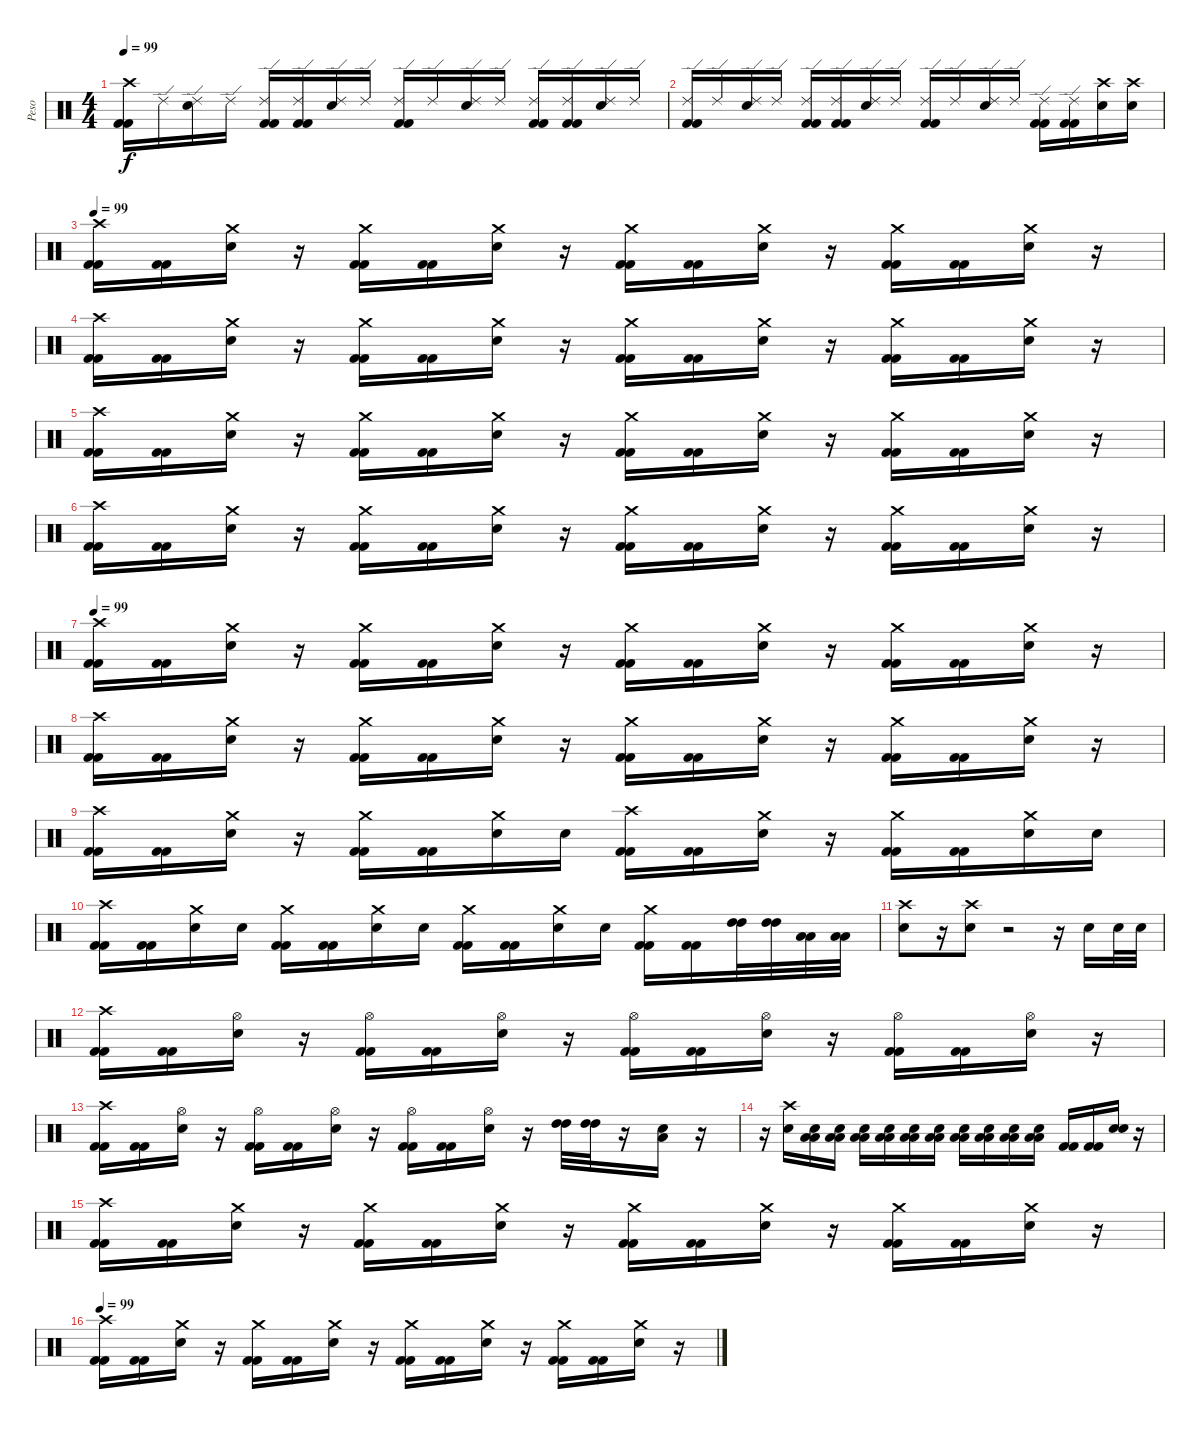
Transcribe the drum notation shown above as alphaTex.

\track ("Peso" "Peso") {instrument percussion}
\staff {score}
\articulation defaults
\ts (4 4)
\tempo 99
\clef neutral
\ks c
("Crash high (hit)" "Kick (hit) 2" "Kick (hit) 2").16{dy f} "Ride (edge) 2".16 ("Ride (edge) 2" "Electric Snare (hit)").16 "Ride (edge) 2".16 ("Ride (edge) 2" "Kick (hit) 2" "Kick (hit) 2").16 ("Ride (edge) 2" "Kick (hit) 2" "Kick (hit) 2").16 ("Ride (edge) 2" "Electric Snare (hit)").16 "Ride (edge) 2".16 ("Ride (edge) 2" "Kick (hit) 2" "Kick (hit) 2").16 "Ride (edge) 2".16 ("Ride (edge) 2" "Electric Snare (hit)").16 "Ride (edge) 2".16 ("Ride (edge) 2" "Kick (hit) 2" "Kick (hit) 2").16 ("Ride (edge) 2" "Kick (hit) 2" "Kick (hit) 2").16 ("Ride (edge) 2" "Electric Snare (hit)").16 "Ride (edge) 2".16 |
("Ride (edge) 2" "Kick (hit) 2" "Kick (hit) 2").16 "Ride (edge) 2".16 ("Ride (edge) 2" "Electric Snare (hit)").16 "Ride (edge) 2".16 ("Ride (edge) 2" "Kick (hit) 2" "Kick (hit) 2").16 ("Ride (edge) 2" "Kick (hit) 2" "Kick (hit) 2").16 ("Ride (edge) 2" "Electric Snare (hit)").16 "Ride (edge) 2".16 ("Ride (edge) 2" "Kick (hit) 2" "Kick (hit) 2").16 "Ride (edge) 2".16 ("Ride (edge) 2" "Electric Snare (hit)").16 "Ride (edge) 2".16 ("Ride (edge) 2" "Kick (hit) 2" "Kick (hit) 2").16 ("Ride (edge) 2" "Kick (hit) 2" "Kick (hit) 2").16 ("Crash high (hit)" "Electric Snare (hit)").16 ("Crash high (hit)" "Electric Snare (hit)").16 |
\tempo 99
("Crash high (hit)" "Kick (hit) 2" "Kick (hit) 2").16 ("Kick (hit) 2" "Kick (hit) 2").16 ("Crash medium (hit)" "Electric Snare (hit)").16 r.16 ("Crash medium (hit)" "Kick (hit) 2" "Kick (hit) 2").16 ("Kick (hit) 2" "Kick (hit) 2").16 ("Crash medium (hit)" "Electric Snare (hit)").16 r.16 ("Crash medium (hit)" "Kick (hit) 2" "Kick (hit) 2").16 ("Kick (hit) 2" "Kick (hit) 2").16 ("Crash medium (hit)" "Electric Snare (hit)").16 r.16 ("Crash medium (hit)" "Kick (hit) 2" "Kick (hit) 2").16 ("Kick (hit) 2" "Kick (hit) 2").16 ("Crash medium (hit)" "Electric Snare (hit)").16 r.16 |
("Crash high (hit)" "Kick (hit) 2" "Kick (hit) 2").16 ("Kick (hit) 2" "Kick (hit) 2").16 ("Crash medium (hit)" "Electric Snare (hit)").16 r.16 ("Crash medium (hit)" "Kick (hit) 2" "Kick (hit) 2").16 ("Kick (hit) 2" "Kick (hit) 2").16 ("Crash medium (hit)" "Electric Snare (hit)").16 r.16 ("Crash medium (hit)" "Kick (hit) 2" "Kick (hit) 2").16 ("Kick (hit) 2" "Kick (hit) 2").16 ("Crash medium (hit)" "Electric Snare (hit)").16 r.16 ("Crash medium (hit)" "Kick (hit) 2" "Kick (hit) 2").16 ("Kick (hit) 2" "Kick (hit) 2").16 ("Crash medium (hit)" "Electric Snare (hit)").16 r.16 |
("Crash high (hit)" "Kick (hit) 2" "Kick (hit) 2").16 ("Kick (hit) 2" "Kick (hit) 2").16 ("Crash medium (hit)" "Electric Snare (hit)").16 r.16 ("Crash medium (hit)" "Kick (hit) 2" "Kick (hit) 2").16 ("Kick (hit) 2" "Kick (hit) 2").16 ("Crash medium (hit)" "Electric Snare (hit)").16 r.16 ("Crash medium (hit)" "Kick (hit) 2" "Kick (hit) 2").16 ("Kick (hit) 2" "Kick (hit) 2").16 ("Crash medium (hit)" "Electric Snare (hit)").16 r.16 ("Crash medium (hit)" "Kick (hit) 2" "Kick (hit) 2").16 ("Kick (hit) 2" "Kick (hit) 2").16 ("Crash medium (hit)" "Electric Snare (hit)").16 r.16 |
("Crash high (hit)" "Kick (hit) 2" "Kick (hit) 2").16 ("Kick (hit) 2" "Kick (hit) 2").16 ("Crash medium (hit)" "Electric Snare (hit)").16 r.16 ("Crash medium (hit)" "Kick (hit) 2" "Kick (hit) 2").16 ("Kick (hit) 2" "Kick (hit) 2").16 ("Crash medium (hit)" "Electric Snare (hit)").16 r.16 ("Crash medium (hit)" "Kick (hit) 2" "Kick (hit) 2").16 ("Kick (hit) 2" "Kick (hit) 2").16 ("Crash medium (hit)" "Electric Snare (hit)").16 r.16 ("Crash medium (hit)" "Kick (hit) 2" "Kick (hit) 2").16 ("Kick (hit) 2" "Kick (hit) 2").16 ("Crash medium (hit)" "Electric Snare (hit)").16 r.16 |
\tempo 99
("Crash high (hit)" "Kick (hit) 2" "Kick (hit) 2").16 ("Kick (hit) 2" "Kick (hit) 2").16 ("Crash medium (hit)" "Electric Snare (hit)").16 r.16 ("Crash medium (hit)" "Kick (hit) 2" "Kick (hit) 2").16 ("Kick (hit) 2" "Kick (hit) 2").16 ("Crash medium (hit)" "Electric Snare (hit)").16 r.16 ("Crash medium (hit)" "Kick (hit) 2" "Kick (hit) 2").16 ("Kick (hit) 2" "Kick (hit) 2").16 ("Crash medium (hit)" "Electric Snare (hit)").16 r.16 ("Crash medium (hit)" "Kick (hit) 2" "Kick (hit) 2").16 ("Kick (hit) 2" "Kick (hit) 2").16 ("Crash medium (hit)" "Electric Snare (hit)").16 r.16 |
("Crash high (hit)" "Kick (hit) 2" "Kick (hit) 2").16 ("Kick (hit) 2" "Kick (hit) 2").16 ("Crash medium (hit)" "Electric Snare (hit)").16 r.16 ("Crash medium (hit)" "Kick (hit) 2" "Kick (hit) 2").16 ("Kick (hit) 2" "Kick (hit) 2").16 ("Crash medium (hit)" "Electric Snare (hit)").16 r.16 ("Crash medium (hit)" "Kick (hit) 2" "Kick (hit) 2").16 ("Kick (hit) 2" "Kick (hit) 2").16 ("Crash medium (hit)" "Electric Snare (hit)").16 r.16 ("Crash medium (hit)" "Kick (hit) 2" "Kick (hit) 2").16 ("Kick (hit) 2" "Kick (hit) 2").16 ("Crash medium (hit)" "Electric Snare (hit)").16 r.16 |
("Crash high (hit)" "Kick (hit) 2" "Kick (hit) 2").16 ("Kick (hit) 2" "Kick (hit) 2").16 ("Crash medium (hit)" "Electric Snare (hit)").16 r.16 ("Crash medium (hit)" "Kick (hit) 2" "Kick (hit) 2").16 ("Kick (hit) 2" "Kick (hit) 2").16 ("Crash medium (hit)" "Electric Snare (hit)").16 "Electric Snare (hit)".16 ("Crash high (hit)" "Kick (hit) 2" "Kick (hit) 2").16 ("Kick (hit) 2" "Kick (hit) 2").16 ("Crash medium (hit)" "Electric Snare (hit)").16 r.16 ("Crash medium (hit)" "Kick (hit) 2" "Kick (hit) 2").16 ("Kick (hit) 2" "Kick (hit) 2").16 ("Crash medium (hit)" "Electric Snare (hit)").16 "Electric Snare (hit)".16 |
("Crash high (hit)" "Kick (hit) 2" "Kick (hit) 2").16 ("Kick (hit) 2" "Kick (hit) 2").16 ("Crash medium (hit)" "Electric Snare (hit)").16 "Electric Snare (hit)".16 ("Crash medium (hit)" "Kick (hit) 2" "Kick (hit) 2").16 ("Kick (hit) 2" "Kick (hit) 2").16 ("Crash medium (hit)" "Electric Snare (hit)").16 "Electric Snare (hit)".16 ("Crash medium (hit)" "Kick (hit) 2" "Kick (hit) 2").16 ("Kick (hit) 2" "Kick (hit) 2").16 ("Crash medium (hit)" "Electric Snare (hit)").16 "Electric Snare (hit)".16 ("Crash medium (hit)" "Kick (hit) 2" "Kick (hit) 2").16 ("Kick (hit) 2" "Kick (hit) 2").16 ("High Tom (hit)" "High Tom (hit)").32{volume 16} ("High Tom (hit)" "High Tom (hit)").32 ("Low Floor Tom (hit)" "Low Floor Tom (hit)").32 ("Low Floor Tom (hit)" "Low Floor Tom (hit)").32 |
("Crash high (hit)" "Electric Snare (hit)").8{volume 15} r.16 ("Crash high (hit)" "Electric Snare (hit)").8 r.2 r.16 "Electric Snare (hit)".16 "Electric Snare (hit)".32 "Electric Snare (hit)".32 |
("Crash high (hit)" "Kick (hit) 2" "Kick (hit) 2").16 ("Kick (hit) 2" "Kick (hit) 2").16 ("Hi-Hat (open)" "Electric Snare (hit)").16 r.16 ("Hi-Hat (open)" "Kick (hit) 2" "Kick (hit) 2").16 ("Kick (hit) 2" "Kick (hit) 2").16 ("Hi-Hat (open)" "Electric Snare (hit)").16 r.16 ("Hi-Hat (open)" "Kick (hit) 2" "Kick (hit) 2").16 ("Kick (hit) 2" "Kick (hit) 2").16 ("Hi-Hat (open)" "Electric Snare (hit)").16 r.16 ("Hi-Hat (open)" "Kick (hit) 2" "Kick (hit) 2").16 ("Kick (hit) 2" "Kick (hit) 2").16 ("Hi-Hat (open)" "Electric Snare (hit)").16 r.16 |
("Crash high (hit)" "Kick (hit) 2" "Kick (hit) 2").16 ("Kick (hit) 2" "Kick (hit) 2").16 ("Hi-Hat (open)" "Electric Snare (hit)").16 r.16 ("Hi-Hat (open)" "Kick (hit) 2" "Kick (hit) 2").16 ("Kick (hit) 2" "Kick (hit) 2").16 ("Hi-Hat (open)" "Electric Snare (hit)").16 r.16 ("Hi-Hat (open)" "Kick (hit) 2" "Kick (hit) 2").16 ("Kick (hit) 2" "Kick (hit) 2").16 ("Hi-Hat (open)" "Electric Snare (hit)").16 r.16 ("High Tom (hit)" "High Tom (hit)").32{volume 16} ("High Tom (hit)" "High Tom (hit)").32 r.16 ("Low Floor Tom (hit)" "Electric Snare (hit)").16 r.16 |
r.16 ("Crash high (hit)" "Electric Snare (hit)").16{volume 16} ("Low Floor Tom (hit)" "Low Floor Tom (hit)" "Electric Snare (hit)").16 ("Low Floor Tom (hit)" "Low Floor Tom (hit)" "Electric Snare (hit)").16 ("Low Floor Tom (hit)" "Low Floor Tom (hit)" "Electric Snare (hit)").16 ("Low Floor Tom (hit)" "Low Floor Tom (hit)" "Electric Snare (hit)").16 ("Low Floor Tom (hit)" "Low Floor Tom (hit)" "Electric Snare (hit)").16 ("Low Floor Tom (hit)" "Low Floor Tom (hit)" "Electric Snare (hit)").16 ("Low Floor Tom (hit)" "Low Floor Tom (hit)" "Electric Snare (hit)").16 ("Low Floor Tom (hit)" "Low Floor Tom (hit)" "Electric Snare (hit)").16 ("Low Floor Tom (hit)" "Low Floor Tom (hit)" "Electric Snare (hit)").16 ("Low Floor Tom (hit)" "Low Floor Tom (hit)" "Electric Snare (hit)").16 ("Kick (hit) 2" "Kick (hit) 2").16 ("Kick (hit) 2" "Kick (hit) 2").16 ("Electric Snare (hit)" "Electric Snare (hit)").16 r.16 |
("Crash high (hit)" "Kick (hit) 2" "Kick (hit) 2").16 ("Kick (hit) 2" "Kick (hit) 2").16 ("Crash medium (hit)" "Electric Snare (hit)").16 r.16 ("Crash medium (hit)" "Kick (hit) 2" "Kick (hit) 2").16 ("Kick (hit) 2" "Kick (hit) 2").16 ("Crash medium (hit)" "Electric Snare (hit)").16 r.16 ("Crash medium (hit)" "Kick (hit) 2" "Kick (hit) 2").16 ("Kick (hit) 2" "Kick (hit) 2").16 ("Crash medium (hit)" "Electric Snare (hit)").16 r.16 ("Crash medium (hit)" "Kick (hit) 2" "Kick (hit) 2").16 ("Kick (hit) 2" "Kick (hit) 2").16 ("Crash medium (hit)" "Electric Snare (hit)").16 r.16 |
\tempo 99
("Crash high (hit)" "Kick (hit) 2" "Kick (hit) 2").16 ("Kick (hit) 2" "Kick (hit) 2").16 ("Crash medium (hit)" "Electric Snare (hit)").16 r.16 ("Crash medium (hit)" "Kick (hit) 2" "Kick (hit) 2").16 ("Kick (hit) 2" "Kick (hit) 2").16 ("Crash medium (hit)" "Electric Snare (hit)").16 r.16 ("Crash medium (hit)" "Kick (hit) 2" "Kick (hit) 2").16 ("Kick (hit) 2" "Kick (hit) 2").16 ("Crash medium (hit)" "Electric Snare (hit)").16 r.16 ("Crash medium (hit)" "Kick (hit) 2" "Kick (hit) 2").16 ("Kick (hit) 2" "Kick (hit) 2").16 ("Crash medium (hit)" "Electric Snare (hit)").16 r.16
